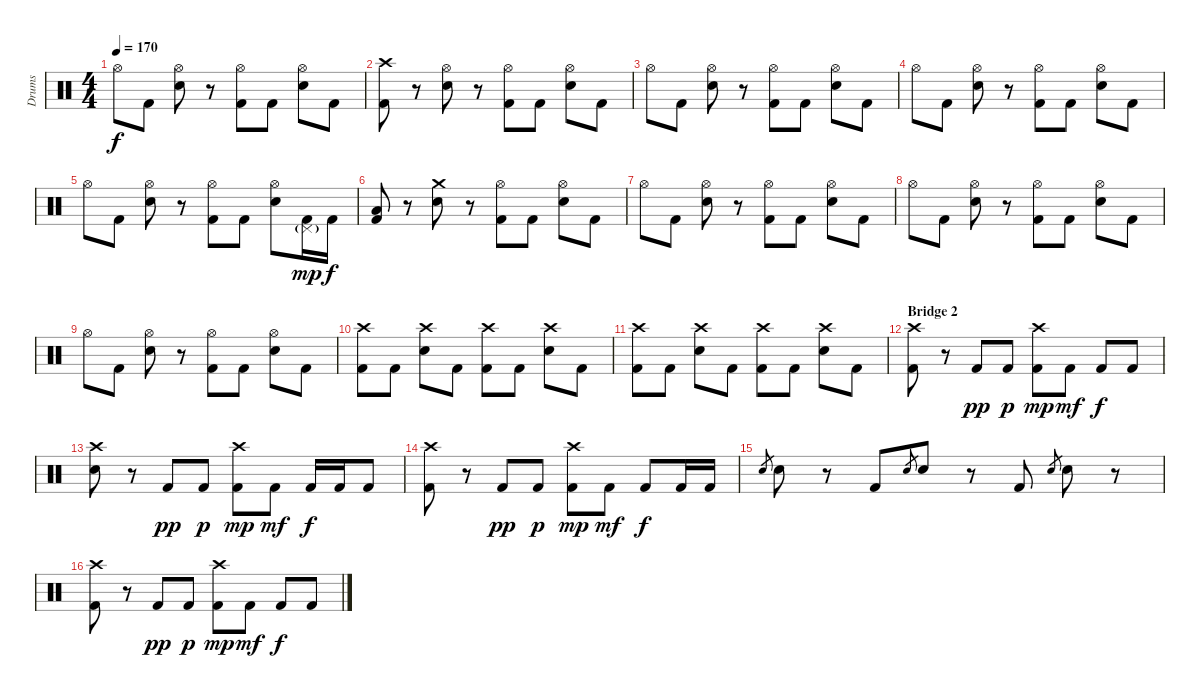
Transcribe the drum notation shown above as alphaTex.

\track ("Drums" "Drums") {instrument percussion}
\staff {score}
\articulation defaults
\ts (4 4)
\tempo 170
\clef neutral
\ks c "Hi-Hat (open)".8{dy f} "Kick (hit) 2".8
("Hi-Hat (open)" "Electric Snare (hit)").8 r.8 ("Hi-Hat (open)" "Kick (hit) 2").8 "Kick (hit) 2".8 ("Hi-Hat (open)" "Electric Snare (hit)").8 "Kick (hit) 2".8 |
("Crash high (hit)" "Kick (hit) 2").8 r.8 ("Hi-Hat (open)" "Electric Snare (hit)").8 r.8 ("Hi-Hat (open)" "Kick (hit) 2").8 "Kick (hit) 2".8 ("Hi-Hat (open)" "Electric Snare (hit)").8 "Kick (hit) 2".8 |
"Hi-Hat (open)".8 "Kick (hit) 2".8 ("Hi-Hat (open)" "Electric Snare (hit)").8 r.8 ("Hi-Hat (open)" "Kick (hit) 2").8 "Kick (hit) 2".8 ("Hi-Hat (open)" "Electric Snare (hit)").8 "Kick (hit) 2".8 |
"Hi-Hat (open)".8 "Kick (hit) 2".8 ("Hi-Hat (open)" "Electric Snare (hit)").8 r.8 ("Hi-Hat (open)" "Kick (hit) 2").8 "Kick (hit) 2".8 ("Hi-Hat (open)" "Electric Snare (hit)").8 "Kick (hit) 2".8 |
"Hi-Hat (open)".8 "Kick (hit) 2".8 ("Hi-Hat (open)" "Electric Snare (hit)").8 r.8 ("Hi-Hat (open)" "Kick (hit) 2").8 "Kick (hit) 2".8 ("Hi-Hat (open)" "Electric Snare (hit)").8 ("Pedal Hi-Hat (hit)"{g} "Kick (hit) 2").16{dy mp} "Kick (hit) 2".16{dy f} |
("Low Floor Tom (hit)" "Kick (hit) 2").8 r.8 ("Crash medium (hit)" "Electric Snare (hit)").8 r.8 ("Hi-Hat (open)" "Kick (hit) 2").8 "Kick (hit) 2".8 ("Hi-Hat (open)" "Electric Snare (hit)").8 "Kick (hit) 2".8 |
"Hi-Hat (open)".8 "Kick (hit) 2".8 ("Hi-Hat (open)" "Electric Snare (hit)").8 r.8 ("Hi-Hat (open)" "Kick (hit) 2").8 "Kick (hit) 2".8 ("Hi-Hat (open)" "Electric Snare (hit)").8 "Kick (hit) 2".8 |
"Hi-Hat (open)".8 "Kick (hit) 2".8 ("Hi-Hat (open)" "Electric Snare (hit)").8 r.8 ("Hi-Hat (open)" "Kick (hit) 2").8 "Kick (hit) 2".8 ("Hi-Hat (open)" "Electric Snare (hit)").8 "Kick (hit) 2".8 |
"Hi-Hat (open)".8 "Kick (hit) 2".8 ("Hi-Hat (open)" "Electric Snare (hit)").8 r.8 ("Hi-Hat (open)" "Kick (hit) 2").8 "Kick (hit) 2".8 ("Hi-Hat (open)" "Electric Snare (hit)").8 "Kick (hit) 2".8 |
("Crash high (hit)" "Kick (hit) 2").8 "Kick (hit) 2".8 ("Crash high (hit)" "Electric Snare (hit)").8 "Kick (hit) 2".8 ("Crash high (hit)" "Kick (hit) 2").8 "Kick (hit) 2".8 ("Crash high (hit)" "Electric Snare (hit)").8 "Kick (hit) 2".8 |
("Crash high (hit)" "Kick (hit) 2").8 "Kick (hit) 2".8 ("Crash high (hit)" "Electric Snare (hit)").8 "Kick (hit) 2".8 ("Crash high (hit)" "Kick (hit) 2").8 "Kick (hit) 2".8 ("Crash high (hit)" "Electric Snare (hit)").8 "Kick (hit) 2".8 |
\section ("" "Bridge 2")
("Crash high (hit)" "Kick (hit) 2").8 r.8 "Kick (hit) 2".8{dy pp} "Kick (hit) 2".8{dy p} ("Crash high (hit)" "Kick (hit) 2").8{dy mp} "Kick (hit) 2".8{dy mf} "Kick (hit) 2".8{dy f} "Kick (hit) 2".8 |
("Crash high (hit)" "Electric Snare (hit)").8 r.8 "Kick (hit) 2".8{dy pp} "Kick (hit) 2".8{dy p} ("Crash high (hit)" "Kick (hit) 2").8{dy mp} "Kick (hit) 2".8{dy mf} "Kick (hit) 2".16{dy f} "Kick (hit) 2".16 "Kick (hit) 2".8 |
("Crash high (hit)" "Kick (hit) 2").8 r.8 "Kick (hit) 2".8{dy pp} "Kick (hit) 2".8{dy p} ("Crash high (hit)" "Kick (hit) 2").8{dy mp} "Kick (hit) 2".8{dy mf} "Kick (hit) 2".8{dy f} "Kick (hit) 2".16 "Kick (hit) 2".16 |
"Electric Snare (hit)".8{gr} "Electric Snare (hit)".8 r.8 "Kick (hit) 2".8 "Electric Snare (hit)".8{gr} "Electric Snare (hit)".8 r.8 "Kick (hit) 2".8 "Electric Snare (hit)".8{gr} "Electric Snare (hit)".8 r.8 |
("Crash high (hit)" "Kick (hit) 2").8 r.8 "Kick (hit) 2".8{dy pp} "Kick (hit) 2".8{dy p} ("Crash high (hit)" "Kick (hit) 2").8{dy mp} "Kick (hit) 2".8{dy mf} "Kick (hit) 2".8{dy f} "Kick (hit) 2".8
